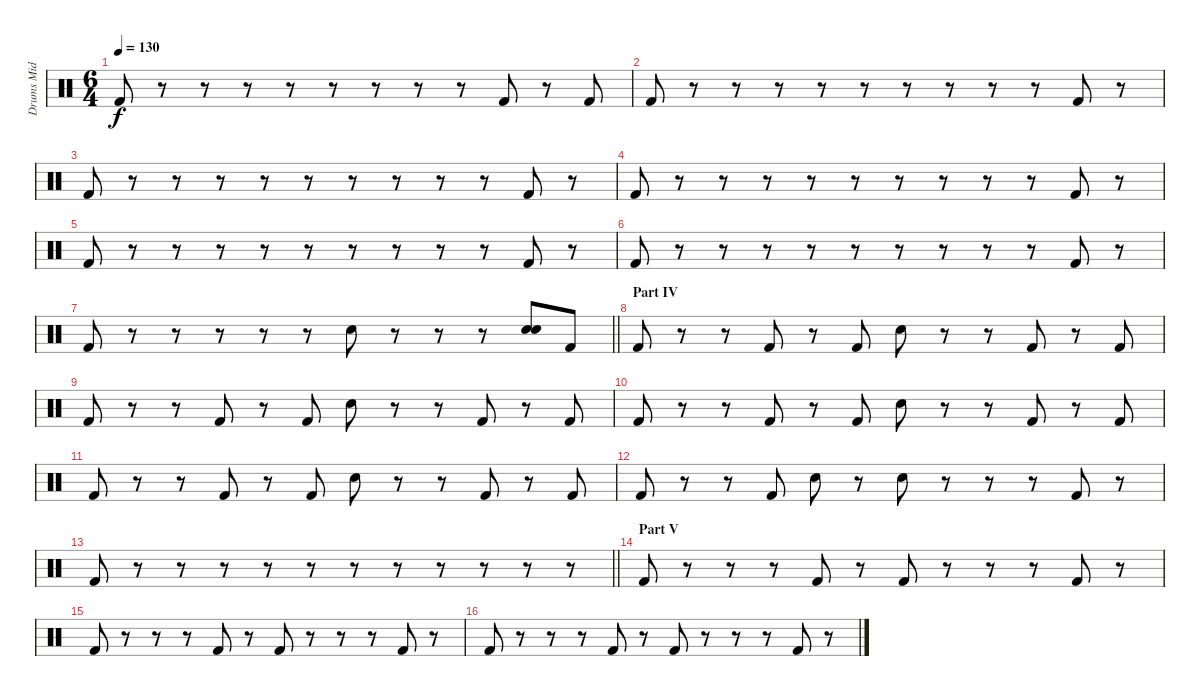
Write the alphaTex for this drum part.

\track ("Drums Mid" "Drums Mid") {instrument percussion}
\staff {score}
\articulation defaults
\ts (6 4)
\tempo 130
\clef neutral
\ks c "Kick (hit) 2".8{dy f}
r.8 r.8 r.8 r.8 r.8 r.8 r.8 r.8 "Kick (hit) 2".8 r.8 "Kick (hit) 2".8 |
"Kick (hit) 2".8 r.8 r.8 r.8 r.8 r.8 r.8 r.8 r.8 r.8 "Kick (hit) 2".8 r.8 |
"Kick (hit) 2".8 r.8 r.8 r.8 r.8 r.8 r.8 r.8 r.8 r.8 "Kick (hit) 2".8 r.8 |
"Kick (hit) 2".8 r.8 r.8 r.8 r.8 r.8 r.8 r.8 r.8 r.8 "Kick (hit) 2".8 r.8 |
"Kick (hit) 2".8 r.8 r.8 r.8 r.8 r.8 r.8 r.8 r.8 r.8 "Kick (hit) 2".8 r.8 |
"Kick (hit) 2".8 r.8 r.8 r.8 r.8 r.8 r.8 r.8 r.8 r.8 "Kick (hit) 2".8 r.8 |
\barLineRight lightlight "Kick (hit) 2".8
r.8 r.8 r.8 r.8 r.8 "Snare (hit) 2".8 r.8 r.8 r.8 ("Snare (hit) 2" "Snare (hit) 2").8{bd 480} "Kick (hit) 2".8 |
\section ("" "Part IV")
"Kick (hit) 2".8 r.8 r.8 "Kick (hit) 2".8 r.8 "Kick (hit) 2".8 "Snare (hit) 2".8 r.8 r.8 "Kick (hit) 2".8 r.8 "Kick (hit) 2".8 |
"Kick (hit) 2".8 r.8 r.8 "Kick (hit) 2".8 r.8 "Kick (hit) 2".8 "Snare (hit) 2".8 r.8 r.8 "Kick (hit) 2".8 r.8 "Kick (hit) 2".8 |
"Kick (hit) 2".8 r.8 r.8 "Kick (hit) 2".8 r.8 "Kick (hit) 2".8 "Snare (hit) 2".8 r.8 r.8 "Kick (hit) 2".8 r.8 "Kick (hit) 2".8 |
"Kick (hit) 2".8 r.8 r.8 "Kick (hit) 2".8 r.8 "Kick (hit) 2".8 "Snare (hit) 2".8 r.8 r.8 "Kick (hit) 2".8 r.8 "Kick (hit) 2".8 |
"Kick (hit) 2".8 r.8 r.8 "Kick (hit) 2".8 "Snare (hit) 2".8 r.8 "Snare (hit) 2".8 r.8 r.8 r.8 "Kick (hit) 2".8 r.8 |
\barLineRight lightlight "Kick (hit) 2".8
r.8 r.8 r.8 r.8 r.8 r.8 r.8 r.8 r.8 r.8 r.8 |
\section ("" "Part V")
"Kick (hit) 2".8 r.8 r.8 r.8 "Kick (hit) 2".8 r.8 "Kick (hit) 2".8 r.8 r.8 r.8 "Kick (hit) 2".8 r.8 |
"Kick (hit) 2".8 r.8 r.8 r.8 "Kick (hit) 2".8 r.8 "Kick (hit) 2".8 r.8 r.8 r.8 "Kick (hit) 2".8 r.8 |
"Kick (hit) 2".8 r.8 r.8 r.8 "Kick (hit) 2".8 r.8 "Kick (hit) 2".8 r.8 r.8 r.8 "Kick (hit) 2".8 r.8
